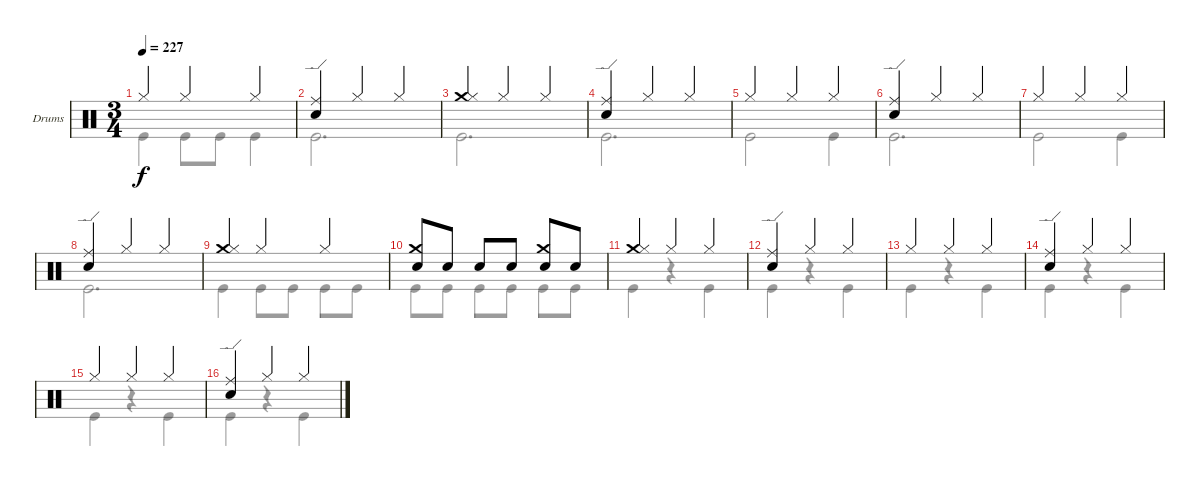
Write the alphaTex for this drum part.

\bracketExtendMode groupsimilarinstruments
\firstSystemTrackNameOrientation horizontal
\otherSystemsTrackNameOrientation horizontal
\track ("Drumkit" "Drums") {instrument percussion}
\staff {score}
\articulation defaults
\voice
\ts (3 4)
\tempo 227
\clef neutral
\ks c "Hi-Hat (closed)".4{dy f} "Hi-Hat (closed)".4 "Hi-Hat (closed)".4
|
("Ride (edge)" "Snare (hit) 2").4 "Hi-Hat (closed)".4 "Hi-Hat (closed)".4 |
("Crash medium (hit)" "Hi-Hat (closed)").4 "Hi-Hat (closed)".4 "Hi-Hat (closed)".4 |
("Ride (edge)" "Snare (hit) 2").4 "Hi-Hat (closed)".4 "Hi-Hat (closed)".4 |
"Hi-Hat (closed)".4 "Hi-Hat (closed)".4 "Hi-Hat (closed)".4 |
("Ride (edge)" "Snare (hit) 2").4 "Hi-Hat (closed)".4 "Hi-Hat (closed)".4 |
"Hi-Hat (closed)".4 "Hi-Hat (closed)".4 "Hi-Hat (closed)".4 |
("Ride (edge)" "Snare (hit) 2").4 "Hi-Hat (closed)".4 "Hi-Hat (closed)".4 |
("Crash medium (hit)" "Hi-Hat (closed)").4 "Hi-Hat (closed)".4 "Hi-Hat (closed)".4 |
("Crash medium (hit)" "Snare (hit) 2").8 "Snare (hit) 2".8 "Snare (hit) 2".8 "Snare (hit) 2".8 ("Crash medium (hit)" "Snare (hit) 2").8 "Snare (hit) 2".8 |
("Crash medium (hit)" "Hi-Hat (closed)").4 "Hi-Hat (closed)".4 "Hi-Hat (closed)".4 |
("Ride (edge)" "Snare (hit) 2").4 "Hi-Hat (closed)".4 "Hi-Hat (closed)".4 |
"Hi-Hat (closed)".4 "Hi-Hat (closed)".4 "Hi-Hat (closed)".4 |
("Ride (edge)" "Snare (hit) 2").4 "Hi-Hat (closed)".4 "Hi-Hat (closed)".4 |
"Hi-Hat (closed)".4 "Hi-Hat (closed)".4 "Hi-Hat (closed)".4 |
("Ride (edge)" "Snare (hit) 2").4 "Hi-Hat (closed)".4 "Hi-Hat (closed)".4
\voice
\clef neutral
\ottava regular
\simile none
\ks c "Kick (hit)".4{dy f} "Kick (hit)".8 "Kick (hit)".8 "Kick (hit)".4
|
"Kick (hit)".2{d} |
"Kick (hit)".2{d} |
"Kick (hit)".2{d} |
"Kick (hit)".2 "Kick (hit)".4 |
"Kick (hit)".2{d} |
"Kick (hit)".2 "Kick (hit)".4 |
"Kick (hit)".2{d} |
"Kick (hit)".4 "Kick (hit)".8 "Kick (hit)".8 "Kick (hit)".8 "Kick (hit)".8 |
"Kick (hit)".8 "Kick (hit)".8 "Kick (hit)".8 "Kick (hit)".8 "Kick (hit)".8 "Kick (hit)".8 |
"Kick (hit)".4 r.4 "Kick (hit)".4 |
"Kick (hit)".4 r.4 "Kick (hit)".4 |
"Kick (hit)".4 r.4 "Kick (hit)".4 |
"Kick (hit)".4 r.4 "Kick (hit)".4 |
"Kick (hit)".4 r.4 "Kick (hit)".4 |
"Kick (hit)".4 r.4 "Kick (hit)".4
